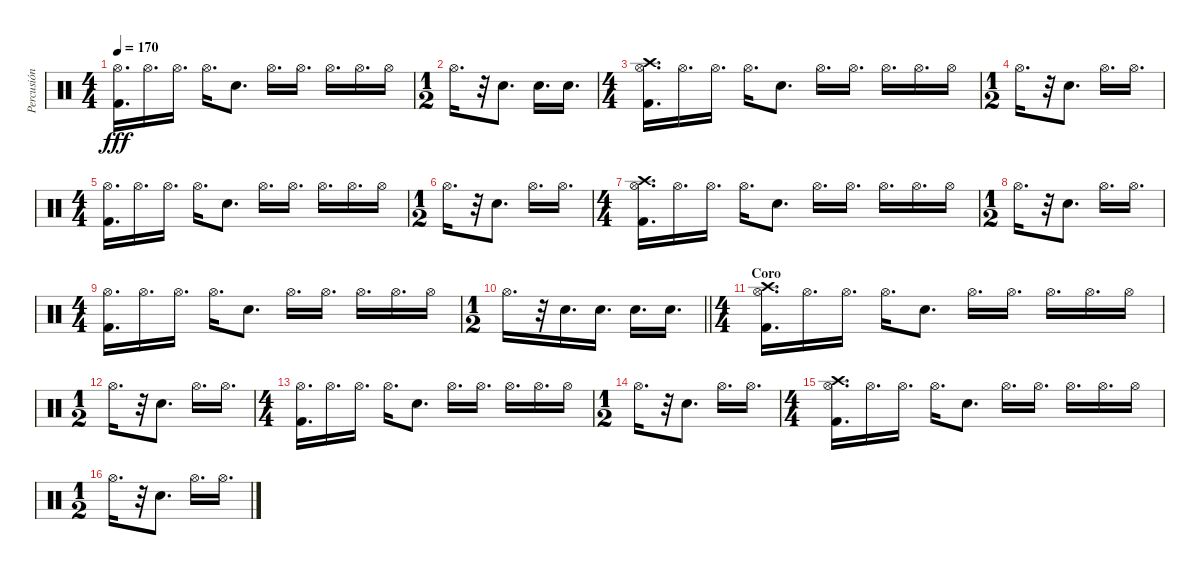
\track ("Percusión" "Percusión") {instrument percussion}
\staff {score}
\articulation defaults
\ts (4 4)
\tempo 170
\clef neutral
\ks c
("Hi-Hat (open)" "Kick (hit) 2").16{d dy fff} "Hi-Hat (open)".16{d} "Hi-Hat (open)".16{d} "Hi-Hat (open)".16{d} "Electric Snare (hit)".8{d} "Hi-Hat (open)".16{d} "Hi-Hat (open)".16{d} "Hi-Hat (open)".16{d} "Hi-Hat (open)".16{d} "Hi-Hat (open)".16 |
\ts (1 2)
"Hi-Hat (open)".16{d} r.32 "Electric Snare (hit)".8{d} "Electric Snare (hit)".16{d} "Electric Snare (hit)".16{d} |
\ts (4 4)
("Crash high (hit)" "Hi-Hat (open)" "Kick (hit) 2").16{d} "Hi-Hat (open)".16{d} "Hi-Hat (open)".16{d} "Hi-Hat (open)".16{d} "Electric Snare (hit)".8{d} "Hi-Hat (open)".16{d} "Hi-Hat (open)".16{d} "Hi-Hat (open)".16{d} "Hi-Hat (open)".16{d} "Hi-Hat (open)".16 |
\ts (1 2)
"Hi-Hat (open)".16{d} r.32 "Electric Snare (hit)".8{d} "Hi-Hat (open)".16{d} "Hi-Hat (open)".16{d} |
\ts (4 4)
("Hi-Hat (open)" "Kick (hit) 2").16{d} "Hi-Hat (open)".16{d} "Hi-Hat (open)".16{d} "Hi-Hat (open)".16{d} "Electric Snare (hit)".8{d} "Hi-Hat (open)".16{d} "Hi-Hat (open)".16{d} "Hi-Hat (open)".16{d} "Hi-Hat (open)".16{d} "Hi-Hat (open)".16 |
\ts (1 2)
"Hi-Hat (open)".16{d} r.32 "Electric Snare (hit)".8{d} "Hi-Hat (open)".16{d} "Hi-Hat (open)".16{d} |
\ts (4 4)
("Crash high (hit)" "Hi-Hat (open)" "Kick (hit) 2").16{d} "Hi-Hat (open)".16{d} "Hi-Hat (open)".16{d} "Hi-Hat (open)".16{d} "Electric Snare (hit)".8{d} "Hi-Hat (open)".16{d} "Hi-Hat (open)".16{d} "Hi-Hat (open)".16{d} "Hi-Hat (open)".16{d} "Hi-Hat (open)".16 |
\ts (1 2)
"Hi-Hat (open)".16{d} r.32 "Electric Snare (hit)".8{d} "Hi-Hat (open)".16{d} "Hi-Hat (open)".16{d} |
\ts (4 4)
("Hi-Hat (open)" "Kick (hit) 2").16{d} "Hi-Hat (open)".16{d} "Hi-Hat (open)".16{d} "Hi-Hat (open)".16{d} "Electric Snare (hit)".8{d} "Hi-Hat (open)".16{d} "Hi-Hat (open)".16{d} "Hi-Hat (open)".16{d} "Hi-Hat (open)".16{d} "Hi-Hat (open)".16 |
\ts (1 2)
\barLineRight lightlight "Hi-Hat (open)".16{d}
r.32 "Electric Snare (hit)".16{d} "Electric Snare (hit)".16{d} "Electric Snare (hit)".16{d} "Electric Snare (hit)".16{d} |
\ts (4 4)
\section ("" "Coro")
("Crash high (hit)" "Hi-Hat (open)" "Kick (hit) 2").16{d} "Hi-Hat (open)".16{d} "Hi-Hat (open)".16{d} "Hi-Hat (open)".16{d} "Electric Snare (hit)".8{d} "Hi-Hat (open)".16{d} "Hi-Hat (open)".16{d} "Hi-Hat (open)".16{d} "Hi-Hat (open)".16{d} "Hi-Hat (open)".16 |
\ts (1 2)
"Hi-Hat (open)".16{d} r.32 "Electric Snare (hit)".8{d} "Hi-Hat (open)".16{d} "Hi-Hat (open)".16{d} |
\ts (4 4)
("Hi-Hat (open)" "Kick (hit) 2").16{d} "Hi-Hat (open)".16{d} "Hi-Hat (open)".16{d} "Hi-Hat (open)".16{d} "Electric Snare (hit)".8{d} "Hi-Hat (open)".16{d} "Hi-Hat (open)".16{d} "Hi-Hat (open)".16{d} "Hi-Hat (open)".16{d} "Hi-Hat (open)".16 |
\ts (1 2)
"Hi-Hat (open)".16{d} r.32 "Electric Snare (hit)".8{d} "Hi-Hat (open)".16{d} "Hi-Hat (open)".16{d} |
\ts (4 4)
("Crash high (hit)" "Hi-Hat (open)" "Kick (hit) 2").16{d} "Hi-Hat (open)".16{d} "Hi-Hat (open)".16{d} "Hi-Hat (open)".16{d} "Electric Snare (hit)".8{d} "Hi-Hat (open)".16{d} "Hi-Hat (open)".16{d} "Hi-Hat (open)".16{d} "Hi-Hat (open)".16{d} "Hi-Hat (open)".16 |
\ts (1 2)
"Hi-Hat (open)".16{d} r.32 "Electric Snare (hit)".8{d} "Hi-Hat (open)".16{d} "Hi-Hat (open)".16{d}
